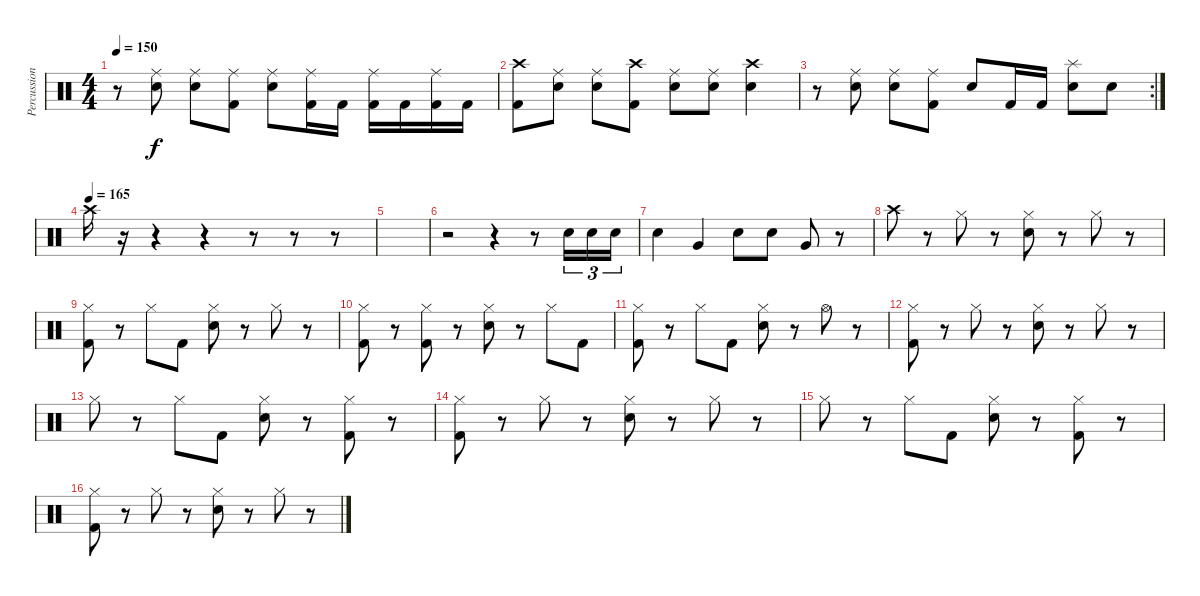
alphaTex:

\track ("Percussion" "Percussion") {instrument percussion}
\staff {score}
\articulation defaults
\ts (4 4)
\tempo 150
\clef neutral
\ks c
r.8{dy f} ("Ride (middle)" "Electric Snare (hit)").8 ("Ride (middle)" "Electric Snare (hit)").8 ("Ride (middle)" "Kick (hit) 2").8 ("Ride (middle)" "Electric Snare (hit)").8 ("Ride (middle)" "Kick (hit) 2").16 "Kick (hit) 2".16 ("Ride (middle)" "Kick (hit) 2").16 "Kick (hit) 2".16 ("Ride (middle)" "Kick (hit) 2").16 "Kick (hit) 2".16 |
("Crash high (hit)" "Kick (hit) 2").8 ("Ride (middle)" "Electric Snare (hit)").8 ("Ride (middle)" "Electric Snare (hit)").8 ("Crash high (hit)" "Kick (hit) 2").8 ("Ride (middle)" "Electric Snare (hit)").8 ("Ride (middle)" "Electric Snare (hit)").8 ("Crash high (hit)" "Electric Snare (hit)").4 |
\rc 2
r.8 ("Ride (middle)" "Electric Snare (hit)").8 ("Ride (middle)" "Electric Snare (hit)").8 ("Ride (middle)" "Kick (hit) 2").8 "Electric Snare (hit)".8 "Kick (hit) 2".16 "Kick (hit) 2".16 ("Splash (hit)" "Electric Snare (hit)").8 "Electric Snare (hit)".8 |
\tempo (165)
"Crash high (hit)".16 r.16 r.4 r.4 r.8 r.8 r.8 |
|
r.2 r.4 r.8 "Electric Snare (hit)".16{tu (3 2)} "Electric Snare (hit)".16{tu (3 2)} "Electric Snare (hit)".16{tu (3 2)} |
"Electric Snare (hit)".4 "Very Low Tom (hit)".4 "Electric Snare (hit)".8 "Electric Snare (hit)".8 "Very Low Tom (hit)".8 r.8 |
"Crash high (hit)".8 r.8 "Hi-Hat (closed)".8 r.8 ("Hi-Hat (closed)" "Electric Snare (hit)").8 r.8 "Hi-Hat (closed)".8 r.8 |
("Hi-Hat (closed)" "Kick (hit) 2").8 r.8 "Hi-Hat (closed)".8 "Kick (hit) 2".8 ("Hi-Hat (closed)" "Electric Snare (hit)").8 r.8 "Hi-Hat (closed)".8 r.8 |
("Hi-Hat (closed)" "Kick (hit) 2").8 r.8 ("Hi-Hat (closed)" "Kick (hit) 2").8 r.8 ("Hi-Hat (closed)" "Electric Snare (hit)").8 r.8 "Hi-Hat (closed)".8 "Kick (hit) 2".8 |
("Hi-Hat (closed)" "Kick (hit) 2").8 r.8 "Hi-Hat (closed)".8 "Kick (hit) 2".8 ("Hi-Hat (closed)" "Electric Snare (hit)").8 r.8 "Hi-Hat (open)".8 r.8 |
("Hi-Hat (closed)" "Kick (hit) 2").8 r.8 "Hi-Hat (closed)".8 r.8 ("Hi-Hat (closed)" "Electric Snare (hit)").8 r.8 "Hi-Hat (closed)".8 r.8 |
"Hi-Hat (closed)".8 r.8 "Hi-Hat (closed)".8 "Kick (hit) 2".8 ("Hi-Hat (closed)" "Electric Snare (hit)").8 r.8 ("Hi-Hat (closed)" "Kick (hit) 2").8 r.8 |
("Hi-Hat (closed)" "Kick (hit) 2").8 r.8 "Hi-Hat (closed)".8 r.8 ("Hi-Hat (closed)" "Electric Snare (hit)").8 r.8 "Hi-Hat (closed)".8 r.8 |
"Hi-Hat (closed)".8 r.8 "Hi-Hat (closed)".8 "Kick (hit) 2".8 ("Hi-Hat (closed)" "Electric Snare (hit)").8 r.8 ("Hi-Hat (closed)" "Kick (hit) 2").8 r.8 |
("Hi-Hat (closed)" "Kick (hit) 2").8 r.8 "Hi-Hat (closed)".8 r.8 ("Hi-Hat (closed)" "Electric Snare (hit)").8 r.8 "Hi-Hat (closed)".8 r.8
